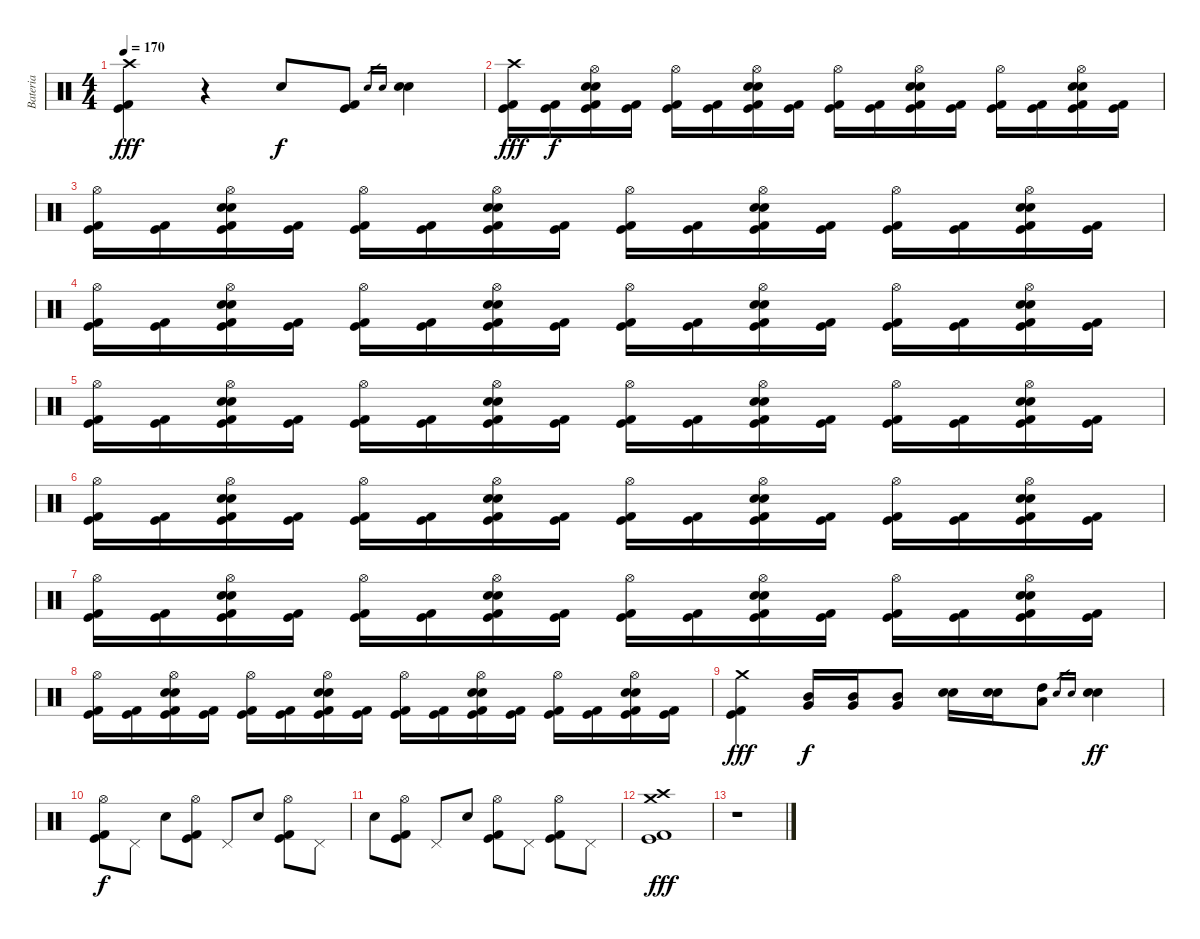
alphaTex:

\track ("Bateria" "Bateria") {instrument percussion}
\staff {score}
\articulation defaults
\ts (4 4)
\tempo 170
\clef neutral
\ks c
("Crash high (hit)" "Kick (hit) 2" "Kick (hit)").4{dy fff} r.4 "Snare (hit)"{x}.8{dy f} ("Kick (hit) 2" "Kick (hit)").8 "Electric Snare (hit)".16{gr} "Snare (hit) 2".16{gr} ("Electric Snare (hit)" "Snare (hit) 2").4 |
("Crash high (hit)" "Kick (hit) 2" "Kick (hit)").16{dy fff} ("Kick (hit) 2" "Kick (hit)").16{dy f} ("Hi-Hat (open)" "Electric Snare (hit)" "Snare (hit) 2" "Kick (hit) 2" "Kick (hit)").16 ("Kick (hit) 2" "Kick (hit)").16 ("Hi-Hat (open)" "Kick (hit) 2" "Kick (hit)").16 ("Kick (hit) 2" "Kick (hit)").16 ("Hi-Hat (open)" "Electric Snare (hit)" "Snare (hit) 2" "Kick (hit) 2" "Kick (hit)").16 ("Kick (hit) 2" "Kick (hit)").16 ("Hi-Hat (open)" "Kick (hit) 2" "Kick (hit)").16 ("Kick (hit) 2" "Kick (hit)").16 ("Hi-Hat (open)" "Electric Snare (hit)" "Snare (hit) 2" "Kick (hit) 2" "Kick (hit)").16 ("Kick (hit) 2" "Kick (hit)").16 ("Hi-Hat (open)" "Kick (hit) 2" "Kick (hit)").16 ("Kick (hit) 2" "Kick (hit)").16 ("Hi-Hat (open)" "Electric Snare (hit)" "Snare (hit) 2" "Kick (hit) 2" "Kick (hit)").16 ("Kick (hit) 2" "Kick (hit)").16 |
("Hi-Hat (open)" "Kick (hit) 2" "Kick (hit)").16 ("Kick (hit) 2" "Kick (hit)").16 ("Hi-Hat (open)" "Electric Snare (hit)" "Snare (hit) 2" "Kick (hit) 2" "Kick (hit)").16 ("Kick (hit) 2" "Kick (hit)").16 ("Hi-Hat (open)" "Kick (hit) 2" "Kick (hit)").16 ("Kick (hit) 2" "Kick (hit)").16 ("Hi-Hat (open)" "Electric Snare (hit)" "Snare (hit) 2" "Kick (hit) 2" "Kick (hit)").16 ("Kick (hit) 2" "Kick (hit)").16 ("Hi-Hat (open)" "Kick (hit) 2" "Kick (hit)").16 ("Kick (hit) 2" "Kick (hit)").16 ("Hi-Hat (open)" "Electric Snare (hit)" "Snare (hit) 2" "Kick (hit) 2" "Kick (hit)").16 ("Kick (hit) 2" "Kick (hit)").16 ("Hi-Hat (open)" "Kick (hit) 2" "Kick (hit)").16 ("Kick (hit) 2" "Kick (hit)").16 ("Hi-Hat (open)" "Electric Snare (hit)" "Snare (hit) 2" "Kick (hit) 2" "Kick (hit)").16 ("Kick (hit) 2" "Kick (hit)").16 |
("Hi-Hat (open)" "Kick (hit) 2" "Kick (hit)").16 ("Kick (hit) 2" "Kick (hit)").16 ("Hi-Hat (open)" "Electric Snare (hit)" "Snare (hit) 2" "Kick (hit) 2" "Kick (hit)").16 ("Kick (hit) 2" "Kick (hit)").16 ("Hi-Hat (open)" "Kick (hit) 2" "Kick (hit)").16 ("Kick (hit) 2" "Kick (hit)").16 ("Hi-Hat (open)" "Electric Snare (hit)" "Snare (hit) 2" "Kick (hit) 2" "Kick (hit)").16 ("Kick (hit) 2" "Kick (hit)").16 ("Hi-Hat (open)" "Kick (hit) 2" "Kick (hit)").16 ("Kick (hit) 2" "Kick (hit)").16 ("Hi-Hat (open)" "Electric Snare (hit)" "Snare (hit) 2" "Kick (hit) 2" "Kick (hit)").16 ("Kick (hit) 2" "Kick (hit)").16 ("Hi-Hat (open)" "Kick (hit) 2" "Kick (hit)").16 ("Kick (hit) 2" "Kick (hit)").16 ("Hi-Hat (open)" "Electric Snare (hit)" "Snare (hit) 2" "Kick (hit) 2" "Kick (hit)").16 ("Kick (hit) 2" "Kick (hit)").16 |
("Hi-Hat (open)" "Kick (hit) 2" "Kick (hit)").16 ("Kick (hit) 2" "Kick (hit)").16 ("Hi-Hat (open)" "Electric Snare (hit)" "Snare (hit) 2" "Kick (hit) 2" "Kick (hit)").16 ("Kick (hit) 2" "Kick (hit)").16 ("Hi-Hat (open)" "Kick (hit) 2" "Kick (hit)").16 ("Kick (hit) 2" "Kick (hit)").16 ("Hi-Hat (open)" "Electric Snare (hit)" "Snare (hit) 2" "Kick (hit) 2" "Kick (hit)").16 ("Kick (hit) 2" "Kick (hit)").16 ("Hi-Hat (open)" "Kick (hit) 2" "Kick (hit)").16 ("Kick (hit) 2" "Kick (hit)").16 ("Hi-Hat (open)" "Electric Snare (hit)" "Snare (hit) 2" "Kick (hit) 2" "Kick (hit)").16 ("Kick (hit) 2" "Kick (hit)").16 ("Hi-Hat (open)" "Kick (hit) 2" "Kick (hit)").16 ("Kick (hit) 2" "Kick (hit)").16 ("Hi-Hat (open)" "Electric Snare (hit)" "Snare (hit) 2" "Kick (hit) 2" "Kick (hit)").16 ("Kick (hit) 2" "Kick (hit)").16 |
("Hi-Hat (open)" "Kick (hit) 2" "Kick (hit)").16 ("Kick (hit) 2" "Kick (hit)").16 ("Hi-Hat (open)" "Electric Snare (hit)" "Snare (hit) 2" "Kick (hit) 2" "Kick (hit)").16 ("Kick (hit) 2" "Kick (hit)").16 ("Hi-Hat (open)" "Kick (hit) 2" "Kick (hit)").16 ("Kick (hit) 2" "Kick (hit)").16 ("Hi-Hat (open)" "Electric Snare (hit)" "Snare (hit) 2" "Kick (hit) 2" "Kick (hit)").16 ("Kick (hit) 2" "Kick (hit)").16 ("Hi-Hat (open)" "Kick (hit) 2" "Kick (hit)").16 ("Kick (hit) 2" "Kick (hit)").16 ("Hi-Hat (open)" "Electric Snare (hit)" "Snare (hit) 2" "Kick (hit) 2" "Kick (hit)").16 ("Kick (hit) 2" "Kick (hit)").16 ("Hi-Hat (open)" "Kick (hit) 2" "Kick (hit)").16 ("Kick (hit) 2" "Kick (hit)").16 ("Hi-Hat (open)" "Electric Snare (hit)" "Snare (hit) 2" "Kick (hit) 2" "Kick (hit)").16 ("Kick (hit) 2" "Kick (hit)").16 |
("Hi-Hat (open)" "Kick (hit) 2" "Kick (hit)").16 ("Kick (hit) 2" "Kick (hit)").16 ("Hi-Hat (open)" "Electric Snare (hit)" "Snare (hit) 2" "Kick (hit) 2" "Kick (hit)").16 ("Kick (hit) 2" "Kick (hit)").16 ("Hi-Hat (open)" "Kick (hit) 2" "Kick (hit)").16 ("Kick (hit) 2" "Kick (hit)").16 ("Hi-Hat (open)" "Electric Snare (hit)" "Snare (hit) 2" "Kick (hit) 2" "Kick (hit)").16 ("Kick (hit) 2" "Kick (hit)").16 ("Hi-Hat (open)" "Kick (hit) 2" "Kick (hit)").16 ("Kick (hit) 2" "Kick (hit)").16 ("Hi-Hat (open)" "Electric Snare (hit)" "Snare (hit) 2" "Kick (hit) 2" "Kick (hit)").16 ("Kick (hit) 2" "Kick (hit)").16 ("Hi-Hat (open)" "Kick (hit) 2" "Kick (hit)").16 ("Kick (hit) 2" "Kick (hit)").16 ("Hi-Hat (open)" "Electric Snare (hit)" "Snare (hit) 2" "Kick (hit) 2" "Kick (hit)").16 ("Kick (hit) 2" "Kick (hit)").16 |
("Hi-Hat (open)" "Kick (hit) 2" "Kick (hit)").16 ("Kick (hit) 2" "Kick (hit)").16 ("Hi-Hat (open)" "Electric Snare (hit)" "Snare (hit) 2" "Kick (hit) 2" "Kick (hit)").16 ("Kick (hit) 2" "Kick (hit)").16 ("Hi-Hat (open)" "Kick (hit) 2" "Kick (hit)").16 ("Kick (hit) 2" "Kick (hit)").16 ("Hi-Hat (open)" "Electric Snare (hit)" "Snare (hit) 2" "Kick (hit) 2" "Kick (hit)").16 ("Kick (hit) 2" "Kick (hit)").16 ("Hi-Hat (open)" "Kick (hit) 2" "Kick (hit)").16 ("Kick (hit) 2" "Kick (hit)").16 ("Hi-Hat (open)" "Electric Snare (hit)" "Snare (hit) 2" "Kick (hit) 2" "Kick (hit)").16 ("Kick (hit) 2" "Kick (hit)").16 ("Hi-Hat (open)" "Kick (hit) 2" "Kick (hit)").16 ("Kick (hit) 2" "Kick (hit)").16 ("Hi-Hat (open)" "Electric Snare (hit)" "Snare (hit) 2" "Kick (hit) 2" "Kick (hit)").16 ("Kick (hit) 2" "Kick (hit)").16 |
("Crash medium (hit)" "Kick (hit) 2" "Kick (hit)").4{dy fff} ("Mid Tom (hit)" "Very Low Tom (hit)").16{dy f} ("Mid Tom (hit)" "Very Low Tom (hit)").16 ("Mid Tom (hit)" "Very Low Tom (hit)").8 ("Electric Snare (hit)" "Snare (hit) 2").16 ("Electric Snare (hit)" "Snare (hit) 2").16 ("High Tom (hit)" "Low Tom (hit)").8 "Electric Snare (hit)".16{gr} "Snare (hit) 2".16{gr} ("Electric Snare (hit)" "Snare (hit) 2").4{dy ff} |
("Hi-Hat (open)" "Kick (hit) 2" "Kick (hit)").8{dy f} "Pedal Hi-Hat (hit)".8 "Snare (hit)"{x}.8 ("Hi-Hat (open)" "Kick (hit) 2" "Kick (hit)").8 "Pedal Hi-Hat (hit)".8 "Snare (hit)"{x}.8 ("Hi-Hat (open)" "Kick (hit) 2" "Kick (hit)").8 "Pedal Hi-Hat (hit)".8 |
"Snare (hit)"{x}.8 ("Hi-Hat (open)" "Kick (hit) 2" "Kick (hit)").8 "Pedal Hi-Hat (hit)".8 "Snare (hit)"{x}.8 ("Hi-Hat (open)" "Kick (hit) 2" "Kick (hit)").8 "Pedal Hi-Hat (hit)".8 ("Hi-Hat (open)" "Kick (hit) 2" "Kick (hit)").8 "Pedal Hi-Hat (hit)".8 |
("Crash high (hit)" "Crash medium (hit)" "Kick (hit) 2" "Kick (hit)").1{dy fff} |
r.1
